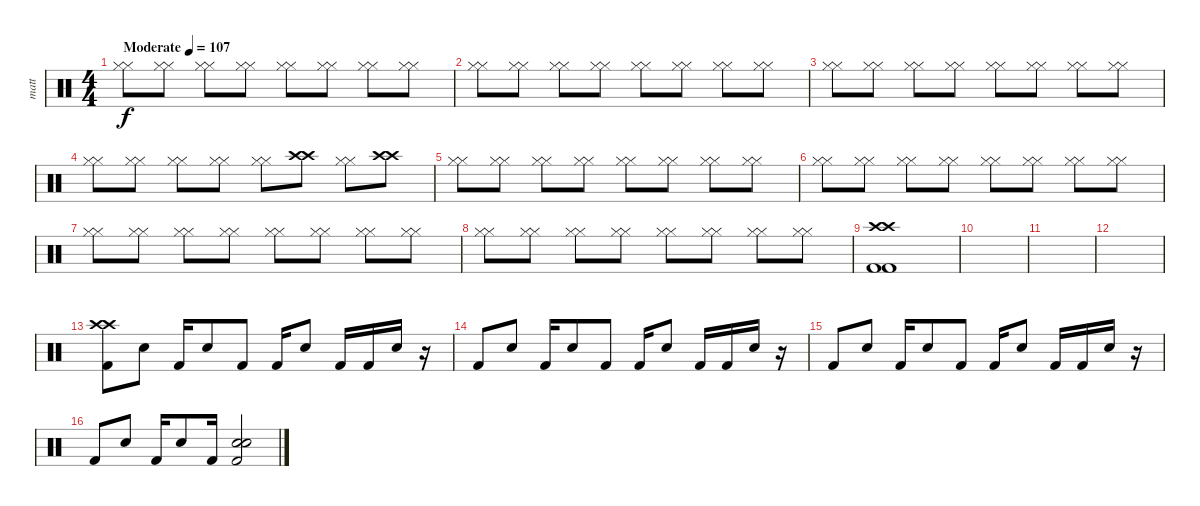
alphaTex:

\track ("matt" "matt") {instrument percussion}
\staff {score}
\articulation defaults
\ts (4 4)
\tempo (107 "Moderate")
\clef neutral
\ks c
("Hi-Hat (closed)" "Hi-Hat (closed)").8{dy f} ("Hi-Hat (closed)" "Hi-Hat (closed)").8 ("Hi-Hat (closed)" "Hi-Hat (closed)").8 ("Hi-Hat (closed)" "Hi-Hat (closed)").8 ("Hi-Hat (closed)" "Hi-Hat (closed)").8 ("Hi-Hat (closed)" "Hi-Hat (closed)").8 ("Hi-Hat (closed)" "Hi-Hat (closed)").8 ("Hi-Hat (closed)" "Hi-Hat (closed)").8 |
("Hi-Hat (closed)" "Hi-Hat (closed)").8 ("Hi-Hat (closed)" "Hi-Hat (closed)").8 ("Hi-Hat (closed)" "Hi-Hat (closed)").8 ("Hi-Hat (closed)" "Hi-Hat (closed)").8 ("Hi-Hat (closed)" "Hi-Hat (closed)").8 ("Hi-Hat (closed)" "Hi-Hat (closed)").8 ("Hi-Hat (closed)" "Hi-Hat (closed)").8 ("Hi-Hat (closed)" "Hi-Hat (closed)").8 |
("Hi-Hat (closed)" "Hi-Hat (closed)").8 ("Hi-Hat (closed)" "Hi-Hat (closed)").8 ("Hi-Hat (closed)" "Hi-Hat (closed)").8 ("Hi-Hat (closed)" "Hi-Hat (closed)").8 ("Hi-Hat (closed)" "Hi-Hat (closed)").8 ("Hi-Hat (closed)" "Hi-Hat (closed)").8 ("Hi-Hat (closed)" "Hi-Hat (closed)").8 ("Hi-Hat (closed)" "Hi-Hat (closed)").8 |
("Hi-Hat (closed)" "Hi-Hat (closed)").8 ("Hi-Hat (closed)" "Hi-Hat (closed)").8 ("Hi-Hat (closed)" "Hi-Hat (closed)").8 ("Hi-Hat (closed)" "Hi-Hat (closed)").8 ("Hi-Hat (closed)" "Hi-Hat (closed)").8 ("Crash high (hit)" "Crash high (hit)").8 ("Hi-Hat (closed)" "Hi-Hat (closed)").8 ("Crash high (hit)" "Crash high (hit)").8 |
("Hi-Hat (closed)" "Hi-Hat (closed)").8 ("Hi-Hat (closed)" "Hi-Hat (closed)").8 ("Hi-Hat (closed)" "Hi-Hat (closed)").8 ("Hi-Hat (closed)" "Hi-Hat (closed)").8 ("Hi-Hat (closed)" "Hi-Hat (closed)").8 ("Hi-Hat (closed)" "Hi-Hat (closed)").8 ("Hi-Hat (closed)" "Hi-Hat (closed)").8 ("Hi-Hat (closed)" "Hi-Hat (closed)").8 |
("Hi-Hat (closed)" "Hi-Hat (closed)").8 ("Hi-Hat (closed)" "Hi-Hat (closed)").8 ("Hi-Hat (closed)" "Hi-Hat (closed)").8 ("Hi-Hat (closed)" "Hi-Hat (closed)").8 ("Hi-Hat (closed)" "Hi-Hat (closed)").8 ("Hi-Hat (closed)" "Hi-Hat (closed)").8 ("Hi-Hat (closed)" "Hi-Hat (closed)").8 ("Hi-Hat (closed)" "Hi-Hat (closed)").8 |
("Hi-Hat (closed)" "Hi-Hat (closed)").8 ("Hi-Hat (closed)" "Hi-Hat (closed)").8 ("Hi-Hat (closed)" "Hi-Hat (closed)").8 ("Hi-Hat (closed)" "Hi-Hat (closed)").8 ("Hi-Hat (closed)" "Hi-Hat (closed)").8 ("Hi-Hat (closed)" "Hi-Hat (closed)").8 ("Hi-Hat (closed)" "Hi-Hat (closed)").8 ("Hi-Hat (closed)" "Hi-Hat (closed)").8 |
("Hi-Hat (closed)" "Hi-Hat (closed)").8 ("Hi-Hat (closed)" "Hi-Hat (closed)").8 ("Hi-Hat (closed)" "Hi-Hat (closed)").8 ("Hi-Hat (closed)" "Hi-Hat (closed)").8 ("Hi-Hat (closed)" "Hi-Hat (closed)").8 ("Hi-Hat (closed)" "Hi-Hat (closed)").8 ("Hi-Hat (closed)" "Hi-Hat (closed)").8 ("Hi-Hat (closed)" "Hi-Hat (closed)").8 |
("Crash high (hit)" "Crash high (hit)" "Kick (hit) 2" "Kick (hit) 2").1 |
|
|
|
("Crash high (hit)" "Crash high (hit)" "Kick (hit) 2").8 "Snare (hit) 2".8 "Kick (hit) 2".16 "Snare (hit) 2".8 "Kick (hit) 2".8 "Kick (hit) 2".16 "Snare (hit) 2".8 "Kick (hit) 2".16 "Kick (hit) 2".16 "Snare (hit) 2".16 r.16 |
"Kick (hit) 2".8 "Snare (hit) 2".8 "Kick (hit) 2".16 "Snare (hit) 2".8 "Kick (hit) 2".8 "Kick (hit) 2".16 "Snare (hit) 2".8 "Kick (hit) 2".16 "Kick (hit) 2".16 "Snare (hit) 2".16 r.16 |
"Kick (hit) 2".8 "Snare (hit) 2".8 "Kick (hit) 2".16 "Snare (hit) 2".8 "Kick (hit) 2".8 "Kick (hit) 2".16 "Snare (hit) 2".8 "Kick (hit) 2".16 "Kick (hit) 2".16 "Snare (hit) 2".16 r.16 |
"Kick (hit) 2".8 "Snare (hit) 2".8 "Kick (hit) 2".16 "Snare (hit) 2".8 "Kick (hit) 2".16 ("Snare (hit) 2" "Snare (hit) 2" "Kick (hit) 2").2
